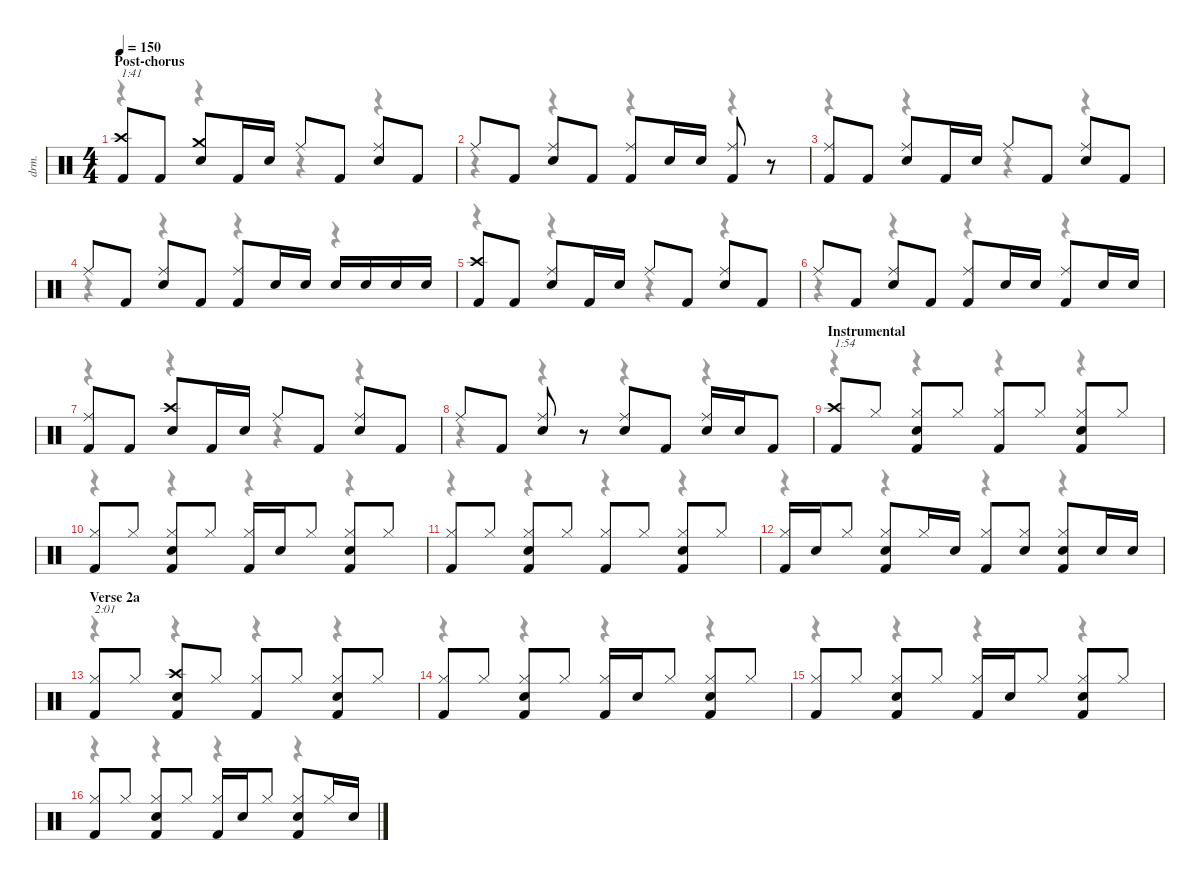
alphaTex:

\defaultSystemsLayout 4
\hideDynamics
\bracketExtendMode nobrackets
\otherSystemsTrackNameOrientation horizontal
\track ("Drums" "drm.") {instrument percussion}
\staff {score}
\articulation defaults
\voice
\ts (4 4)
\section ("" "Post-chorus")
\tempo 150
\clef neutral
\ks c
("Crash high (hit)" "Kick (hit) 2").8{txt "1:41" dy fff beam Up} "Kick (hit) 2".8{beam Up} ("Crash medium (hit)" "Snare (hit) 2").8{beam Up} "Kick (hit) 2".16{beam Up} "Snare (hit) 2".16{beam Up} "Ride (middle)".8{dy f beam Up} "Kick (hit) 2".8{dy fff beam Up} ("Ride (middle)" "Snare (hit) 2").8{dy f beam Up} "Kick (hit) 2".8{dy fff beam Up} |
"Ride (middle)".8{dy f beam Up} "Kick (hit) 2".8{dy fff beam Up} ("Ride (middle)" "Snare (hit) 2").8{dy f beam Up} "Kick (hit) 2".8{dy fff beam Up} ("Ride (middle)" "Kick (hit) 2").8{dy f beam Up} "Snare (hit) 2".16{dy fff beam Up} "Snare (hit) 2".16{beam Up} ("Ride (middle)" "Kick (hit) 2").8{dy f beam Up} r.8{beam Up} |
("Ride (middle)" "Kick (hit) 2").8{beam Up} "Kick (hit) 2".8{dy fff beam Up} ("Ride (middle)" "Snare (hit) 2").8{dy f beam Up} "Kick (hit) 2".16{dy fff beam Up} "Snare (hit) 2".16{beam Up} "Ride (middle)".8{dy f beam Up} "Kick (hit) 2".8{dy fff beam Up} ("Ride (middle)" "Snare (hit) 2").8{dy f beam Up} "Kick (hit) 2".8{dy fff beam Up} |
"Ride (middle)".8{dy f beam Up} "Kick (hit) 2".8{dy fff beam Up} ("Ride (middle)" "Snare (hit) 2").8{dy f beam Up} "Kick (hit) 2".8{dy fff beam Up} ("Ride (middle)" "Kick (hit) 2").8{dy f beam Up} "Snare (hit) 2".16{dy fff beam Up} "Snare (hit) 2".16{beam Up} "Snare (hit) 2".16{beam Up} "Snare (hit) 2".16{beam Up} "Snare (hit) 2".16{beam Up} "Snare (hit) 2".16{beam Up} |
("Crash high (hit)" "Kick (hit) 2").8{beam Up} "Kick (hit) 2".8{beam Up} ("Ride (middle)" "Snare (hit) 2").8{dy f beam Up} "Kick (hit) 2".16{dy fff beam Up} "Snare (hit) 2".16{beam Up} "Ride (middle)".8{dy f beam Up} "Kick (hit) 2".8{dy fff beam Up} ("Ride (middle)" "Snare (hit) 2").8{dy f beam Up} "Kick (hit) 2".8{dy fff beam Up} |
"Ride (middle)".8{dy f beam Up} "Kick (hit) 2".8{dy fff beam Up} ("Ride (middle)" "Snare (hit) 2").8{dy f beam Up} "Kick (hit) 2".8{dy fff beam Up} ("Ride (middle)" "Kick (hit) 2").8{dy f beam Up} "Snare (hit) 2".16{dy fff beam Up} "Snare (hit) 2".16{beam Up} ("Ride (middle)" "Kick (hit) 2").8{dy f beam Up} "Snare (hit) 2".16{dy fff beam Up} "Snare (hit) 2".16{beam Up} |
("Ride (middle)" "Kick (hit) 2").8{dy f beam Up} "Kick (hit) 2".8{dy fff beam Up} ("Crash high (hit)" "Snare (hit) 2").8{beam Up} "Kick (hit) 2".16{beam Up} "Snare (hit) 2".16{beam Up} "Ride (middle)".8{dy f beam Up} "Kick (hit) 2".8{dy fff beam Up} ("Ride (middle)" "Snare (hit) 2").8{dy f beam Up} "Kick (hit) 2".8{dy fff beam Up} |
"Ride (middle)".8{dy f beam Up} "Kick (hit) 2".8{dy fff beam Up} ("Ride (middle)" "Snare (hit) 2").8{dy f beam Up} r.8{beam Up} ("Ride (middle)" "Snare (hit) 2").8{beam Up} "Kick (hit) 2".8{dy fff beam Up} ("Ride (middle)" "Snare (hit) 2").16{dy f beam Up} "Snare (hit) 2".16{dy fff beam Up} "Kick (hit) 2".8{beam Up} |
\section ("" "Instrumental")
("Crash high (hit)" "Kick (hit) 2").8{txt "1:54" beam Up} "Hi-Hat (closed)".8{dy f beam Up} ("Hi-Hat (closed)" "Snare (hit) 2" "Kick (hit) 2").8{beam Up} "Hi-Hat (closed)".8{beam Up} ("Hi-Hat (closed)" "Kick (hit) 2").8{beam Up} "Hi-Hat (closed)".8{beam Up} ("Hi-Hat (closed)" "Snare (hit) 2" "Kick (hit) 2").8{beam Up} "Hi-Hat (closed)".8{beam Up} |
("Hi-Hat (closed)" "Kick (hit) 2").8{beam Up} "Hi-Hat (closed)".8{beam Up} ("Hi-Hat (closed)" "Snare (hit) 2" "Kick (hit) 2").8{beam Up} "Hi-Hat (closed)".8{beam Up} ("Hi-Hat (closed)" "Kick (hit) 2").16{beam Up} "Snare (hit) 2".16{dy fff beam Up} "Hi-Hat (closed)".8{dy f beam Up} ("Hi-Hat (closed)" "Snare (hit) 2" "Kick (hit) 2").8{beam Up} "Hi-Hat (closed)".8{beam Up} |
("Hi-Hat (closed)" "Kick (hit) 2").8{beam Up} "Hi-Hat (closed)".8{beam Up} ("Hi-Hat (closed)" "Snare (hit) 2" "Kick (hit) 2").8{beam Up} "Hi-Hat (closed)".8{beam Up} ("Hi-Hat (closed)" "Kick (hit) 2").8{beam Up} "Hi-Hat (closed)".8{beam Up} ("Hi-Hat (closed)" "Snare (hit) 2" "Kick (hit) 2").8{beam Up} "Hi-Hat (closed)".8{beam Up} |
("Hi-Hat (closed)" "Kick (hit) 2").16{beam Up} "Snare (hit) 2".16{dy fff beam Up} "Hi-Hat (closed)".8{dy f beam Up} ("Hi-Hat (closed)" "Snare (hit) 2" "Kick (hit) 2").8{beam Up} "Hi-Hat (closed)".16{beam Up} "Snare (hit) 2".16{dy fff beam Up} ("Hi-Hat (closed)" "Kick (hit) 2").8{dy f beam Up} ("Hi-Hat (closed)" "Snare (hit) 2").8{beam Up} ("Hi-Hat (closed)" "Snare (hit) 2" "Kick (hit) 2").8{beam Up} "Snare (hit) 2".16{dy fff beam Up} "Snare (hit) 2".16{beam Up} |
\section ("" "Verse 2a")
("Hi-Hat (closed)" "Kick (hit) 2").8{txt "2:01" dy f beam Up} "Hi-Hat (closed)".8{beam Up} ("Crash high (hit)" "Snare (hit) 2" "Kick (hit) 2").8{dy fff beam Up} "Hi-Hat (closed)".8{dy f beam Up} ("Hi-Hat (closed)" "Kick (hit) 2").8{beam Up} "Hi-Hat (closed)".8{beam Up} ("Hi-Hat (closed)" "Snare (hit) 2" "Kick (hit) 2").8{beam Up} "Hi-Hat (closed)".8{beam Up} |
("Hi-Hat (closed)" "Kick (hit) 2").8{beam Up} "Hi-Hat (closed)".8{beam Up} ("Hi-Hat (closed)" "Snare (hit) 2" "Kick (hit) 2").8{beam Up} "Hi-Hat (closed)".8{beam Up} ("Hi-Hat (closed)" "Kick (hit) 2").16{beam Up} "Snare (hit) 2".16{dy fff beam Up} "Hi-Hat (closed)".8{dy f beam Up} ("Hi-Hat (closed)" "Snare (hit) 2" "Kick (hit) 2").8{beam Up} "Hi-Hat (closed)".8{beam Up} |
("Hi-Hat (closed)" "Kick (hit) 2").8{beam Up} "Hi-Hat (closed)".8{beam Up} ("Hi-Hat (closed)" "Snare (hit) 2" "Kick (hit) 2").8{beam Up} "Hi-Hat (closed)".8{beam Up} ("Hi-Hat (closed)" "Kick (hit) 2").16{beam Up} "Snare (hit) 2".16{dy fff beam Up} "Hi-Hat (closed)".8{dy f beam Up} ("Hi-Hat (closed)" "Snare (hit) 2" "Kick (hit) 2").8{beam Up} "Hi-Hat (closed)".8{beam Up} |
("Hi-Hat (closed)" "Kick (hit) 2").8{beam Up} "Hi-Hat (closed)".8{beam Up} ("Hi-Hat (closed)" "Snare (hit) 2" "Kick (hit) 2").8{beam Up} "Hi-Hat (closed)".8{beam Up} ("Hi-Hat (closed)" "Kick (hit) 2").16{beam Up} "Snare (hit) 2".16{dy fff beam Up} "Hi-Hat (closed)".8{dy f beam Up} ("Hi-Hat (closed)" "Snare (hit) 2" "Kick (hit) 2").8{beam Up} "Hi-Hat (closed)".16{beam Up} "Snare (hit) 2".16{dy fff beam Up}
\voice
\clef neutral
\ottava regular
\simile none
\ks c
r.4{dy mf beam Down} r.4{beam Down} r.4{beam Down} r.4{beam Down} |
r.4{beam Down} r.4{beam Down} r.4{beam Down} r.4{beam Down} |
r.4{beam Down} r.4{beam Down} r.4{beam Down} r.4{beam Down} |
r.4{beam Down} r.4{beam Down} r.4{beam Down} r.4{beam Down} |
r.4{beam Down} r.4{beam Down} r.4{beam Down} r.4{beam Down} |
r.4{beam Down} r.4{beam Down} r.4{beam Down} r.4{beam Down} |
r.4{beam Down} r.4{beam Down} r.4{beam Down} r.4{beam Down} |
r.4{beam Down} r.4{beam Down} r.4{beam Down} r.4{beam Down} |
r.4{beam Down} r.4{beam Down} r.4{beam Down} r.4{beam Down} |
r.4{beam Down} r.4{beam Down} r.4{beam Down} r.4{beam Down} |
r.4{beam Down} r.4{beam Down} r.4{beam Down} r.4{beam Down} |
r.4{beam Down} r.4{beam Down} r.4{beam Down} r.4{beam Down} |
r.4{beam Down} r.4{beam Down} r.4{beam Down} r.4{beam Down} |
r.4{beam Down} r.4{beam Down} r.4{beam Down} r.4{beam Down} |
r.4{beam Down} r.4{beam Down} r.4{beam Down} r.4{beam Down} |
r.4{beam Down} r.4{beam Down} r.4{beam Down} r.4{beam Down}
